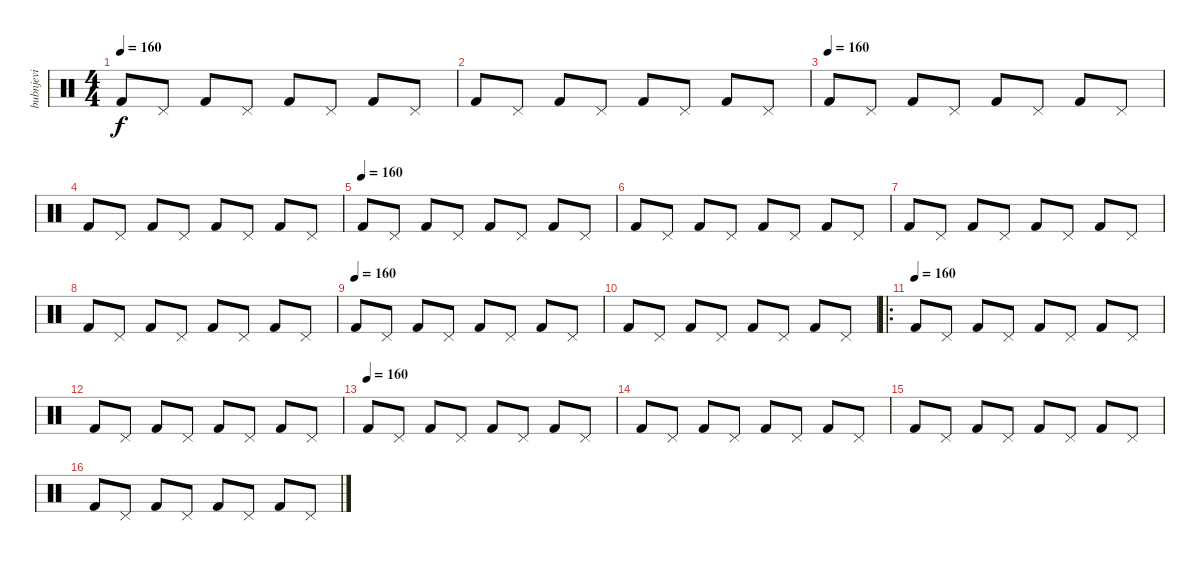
\track ("bubnjevi" "bubnjevi") {instrument percussion}
\staff {score}
\articulation defaults
\ts (4 4)
\tempo 160
\clef neutral
\ks c "Kick (hit) 2".8{dy f} "Pedal Hi-Hat (hit)".8 "Kick (hit) 2".8 "Pedal Hi-Hat (hit)".8 "Kick (hit) 2".8 "Pedal Hi-Hat (hit)".8 "Kick (hit) 2".8 "Pedal Hi-Hat (hit)".8
|
"Kick (hit) 2".8 "Pedal Hi-Hat (hit)".8 "Kick (hit) 2".8 "Pedal Hi-Hat (hit)".8 "Kick (hit) 2".8 "Pedal Hi-Hat (hit)".8 "Kick (hit) 2".8 "Pedal Hi-Hat (hit)".8 |
\tempo (160)
"Kick (hit) 2".8 "Pedal Hi-Hat (hit)".8 "Kick (hit) 2".8 "Pedal Hi-Hat (hit)".8 "Kick (hit) 2".8 "Pedal Hi-Hat (hit)".8 "Kick (hit) 2".8 "Pedal Hi-Hat (hit)".8 |
"Kick (hit) 2".8 "Pedal Hi-Hat (hit)".8 "Kick (hit) 2".8 "Pedal Hi-Hat (hit)".8 "Kick (hit) 2".8 "Pedal Hi-Hat (hit)".8 "Kick (hit) 2".8 "Pedal Hi-Hat (hit)".8 |
\tempo (160)
"Kick (hit) 2".8 "Pedal Hi-Hat (hit)".8 "Kick (hit) 2".8 "Pedal Hi-Hat (hit)".8 "Kick (hit) 2".8 "Pedal Hi-Hat (hit)".8 "Kick (hit) 2".8 "Pedal Hi-Hat (hit)".8 |
"Kick (hit) 2".8 "Pedal Hi-Hat (hit)".8 "Kick (hit) 2".8 "Pedal Hi-Hat (hit)".8 "Kick (hit) 2".8 "Pedal Hi-Hat (hit)".8 "Kick (hit) 2".8 "Pedal Hi-Hat (hit)".8 |
"Kick (hit) 2".8 "Pedal Hi-Hat (hit)".8 "Kick (hit) 2".8 "Pedal Hi-Hat (hit)".8 "Kick (hit) 2".8 "Pedal Hi-Hat (hit)".8 "Kick (hit) 2".8 "Pedal Hi-Hat (hit)".8 |
"Kick (hit) 2".8 "Pedal Hi-Hat (hit)".8 "Kick (hit) 2".8 "Pedal Hi-Hat (hit)".8 "Kick (hit) 2".8 "Pedal Hi-Hat (hit)".8 "Kick (hit) 2".8 "Pedal Hi-Hat (hit)".8 |
\tempo (160)
"Kick (hit) 2".8 "Pedal Hi-Hat (hit)".8 "Kick (hit) 2".8 "Pedal Hi-Hat (hit)".8 "Kick (hit) 2".8 "Pedal Hi-Hat (hit)".8 "Kick (hit) 2".8 "Pedal Hi-Hat (hit)".8 |
"Kick (hit) 2".8 "Pedal Hi-Hat (hit)".8 "Kick (hit) 2".8 "Pedal Hi-Hat (hit)".8 "Kick (hit) 2".8 "Pedal Hi-Hat (hit)".8 "Kick (hit) 2".8 "Pedal Hi-Hat (hit)".8 |
\ro
\tempo 165
\tempo (160)
"Kick (hit) 2".8 "Pedal Hi-Hat (hit)".8 "Kick (hit) 2".8 "Pedal Hi-Hat (hit)".8 "Kick (hit) 2".8 "Pedal Hi-Hat (hit)".8 "Kick (hit) 2".8 "Pedal Hi-Hat (hit)".8 |
"Kick (hit) 2".8 "Pedal Hi-Hat (hit)".8 "Kick (hit) 2".8 "Pedal Hi-Hat (hit)".8 "Kick (hit) 2".8 "Pedal Hi-Hat (hit)".8 "Kick (hit) 2".8 "Pedal Hi-Hat (hit)".8 |
\tempo 165
\tempo (160)
"Kick (hit) 2".8 "Pedal Hi-Hat (hit)".8 "Kick (hit) 2".8 "Pedal Hi-Hat (hit)".8 "Kick (hit) 2".8 "Pedal Hi-Hat (hit)".8 "Kick (hit) 2".8 "Pedal Hi-Hat (hit)".8 |
"Kick (hit) 2".8 "Pedal Hi-Hat (hit)".8 "Kick (hit) 2".8 "Pedal Hi-Hat (hit)".8 "Kick (hit) 2".8 "Pedal Hi-Hat (hit)".8 "Kick (hit) 2".8 "Pedal Hi-Hat (hit)".8 |
"Kick (hit) 2".8 "Pedal Hi-Hat (hit)".8 "Kick (hit) 2".8 "Pedal Hi-Hat (hit)".8 "Kick (hit) 2".8 "Pedal Hi-Hat (hit)".8 "Kick (hit) 2".8 "Pedal Hi-Hat (hit)".8 |
"Kick (hit) 2".8 "Pedal Hi-Hat (hit)".8 "Kick (hit) 2".8 "Pedal Hi-Hat (hit)".8 "Kick (hit) 2".8 "Pedal Hi-Hat (hit)".8 "Kick (hit) 2".8 "Pedal Hi-Hat (hit)".8
